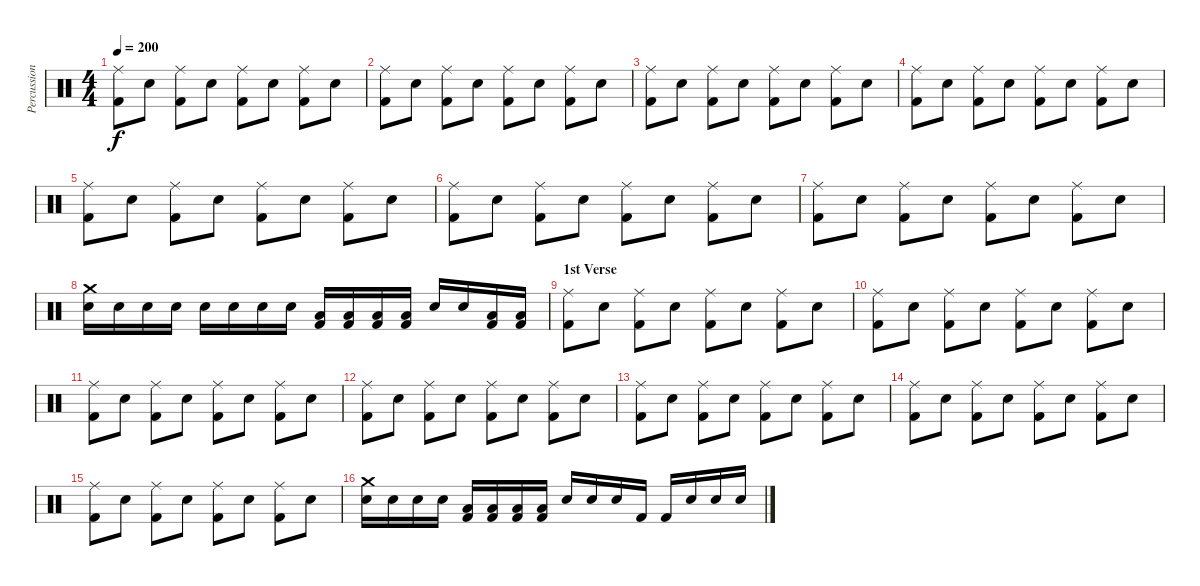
\track ("Percussion" "Percussion") {instrument percussion}
\staff {score}
\articulation defaults
\ts (4 4)
\tempo 200
\clef neutral
\ks c
("Ride (middle)" "Kick (hit) 2").8{dy f} "Electric Snare (hit)".8 ("Ride (middle)" "Kick (hit) 2").8 "Electric Snare (hit)".8 ("Ride (middle)" "Kick (hit) 2").8 "Electric Snare (hit)".8 ("Ride (middle)" "Kick (hit) 2").8 "Electric Snare (hit)".8 |
("Ride (middle)" "Kick (hit) 2").8 "Electric Snare (hit)".8 ("Ride (middle)" "Kick (hit) 2").8 "Electric Snare (hit)".8 ("Ride (middle)" "Kick (hit) 2").8 "Electric Snare (hit)".8 ("Ride (middle)" "Kick (hit) 2").8 "Electric Snare (hit)".8 |
("Ride (middle)" "Kick (hit) 2").8 "Electric Snare (hit)".8 ("Ride (middle)" "Kick (hit) 2").8 "Electric Snare (hit)".8 ("Ride (middle)" "Kick (hit) 2").8 "Electric Snare (hit)".8 ("Ride (middle)" "Kick (hit) 2").8 "Electric Snare (hit)".8 |
("Ride (middle)" "Kick (hit) 2").8 "Electric Snare (hit)".8 ("Ride (middle)" "Kick (hit) 2").8 "Electric Snare (hit)".8 ("Ride (middle)" "Kick (hit) 2").8 "Electric Snare (hit)".8 ("Ride (middle)" "Kick (hit) 2").8 "Electric Snare (hit)".8 |
("Ride (middle)" "Kick (hit) 2").8 "Electric Snare (hit)".8 ("Ride (middle)" "Kick (hit) 2").8 "Electric Snare (hit)".8 ("Ride (middle)" "Kick (hit) 2").8 "Electric Snare (hit)".8 ("Ride (middle)" "Kick (hit) 2").8 "Electric Snare (hit)".8 |
("Ride (middle)" "Kick (hit) 2").8 "Electric Snare (hit)".8 ("Ride (middle)" "Kick (hit) 2").8 "Electric Snare (hit)".8 ("Ride (middle)" "Kick (hit) 2").8 "Electric Snare (hit)".8 ("Ride (middle)" "Kick (hit) 2").8 "Electric Snare (hit)".8 |
("Ride (middle)" "Kick (hit) 2").8 "Electric Snare (hit)".8 ("Ride (middle)" "Kick (hit) 2").8 "Electric Snare (hit)".8 ("Ride (middle)" "Kick (hit) 2").8 "Electric Snare (hit)".8 ("Ride (middle)" "Kick (hit) 2").8 "Electric Snare (hit)".8 |
("Crash medium (hit)" "Electric Snare (hit)").16 "Electric Snare (hit)".16 "Electric Snare (hit)".16 "Electric Snare (hit)".16 "Electric Snare (hit)".16 "Electric Snare (hit)".16 "Electric Snare (hit)".16 "Electric Snare (hit)".16 ("Low Floor Tom (hit)" "Kick (hit) 2").16 ("Low Floor Tom (hit)" "Kick (hit) 2").16 ("Low Floor Tom (hit)" "Kick (hit) 2").16 ("Low Floor Tom (hit)" "Kick (hit) 2").16 "Electric Snare (hit)".16 "Electric Snare (hit)".16 ("Low Floor Tom (hit)" "Kick (hit) 2").16 ("Low Floor Tom (hit)" "Kick (hit) 2").16 |
\section ("" "1st Verse")
("Ride (middle)" "Kick (hit) 2").8 "Electric Snare (hit)".8 ("Ride (middle)" "Kick (hit) 2").8 "Electric Snare (hit)".8 ("Ride (middle)" "Kick (hit) 2").8 "Electric Snare (hit)".8 ("Ride (middle)" "Kick (hit) 2").8 "Electric Snare (hit)".8 |
("Ride (middle)" "Kick (hit) 2").8 "Electric Snare (hit)".8 ("Ride (middle)" "Kick (hit) 2").8 "Electric Snare (hit)".8 ("Ride (middle)" "Kick (hit) 2").8 "Electric Snare (hit)".8 ("Ride (middle)" "Kick (hit) 2").8 "Electric Snare (hit)".8 |
("Ride (middle)" "Kick (hit) 2").8 "Electric Snare (hit)".8 ("Ride (middle)" "Kick (hit) 2").8 "Electric Snare (hit)".8 ("Ride (middle)" "Kick (hit) 2").8 "Electric Snare (hit)".8 ("Ride (middle)" "Kick (hit) 2").8 "Electric Snare (hit)".8 |
("Ride (middle)" "Kick (hit) 2").8 "Electric Snare (hit)".8 ("Ride (middle)" "Kick (hit) 2").8 "Electric Snare (hit)".8 ("Ride (middle)" "Kick (hit) 2").8 "Electric Snare (hit)".8 ("Ride (middle)" "Kick (hit) 2").8 "Electric Snare (hit)".8 |
("Ride (middle)" "Kick (hit) 2").8 "Electric Snare (hit)".8 ("Ride (middle)" "Kick (hit) 2").8 "Electric Snare (hit)".8 ("Ride (middle)" "Kick (hit) 2").8 "Electric Snare (hit)".8 ("Ride (middle)" "Kick (hit) 2").8 "Electric Snare (hit)".8 |
("Ride (middle)" "Kick (hit) 2").8 "Electric Snare (hit)".8 ("Ride (middle)" "Kick (hit) 2").8 "Electric Snare (hit)".8 ("Ride (middle)" "Kick (hit) 2").8 "Electric Snare (hit)".8 ("Ride (middle)" "Kick (hit) 2").8 "Electric Snare (hit)".8 |
("Ride (middle)" "Kick (hit) 2").8 "Electric Snare (hit)".8 ("Ride (middle)" "Kick (hit) 2").8 "Electric Snare (hit)".8 ("Ride (middle)" "Kick (hit) 2").8 "Electric Snare (hit)".8 ("Ride (middle)" "Kick (hit) 2").8 "Electric Snare (hit)".8 |
("Crash medium (hit)" "Electric Snare (hit)").16 "Electric Snare (hit)".16 "Electric Snare (hit)".16 "Electric Snare (hit)".16 ("Low Floor Tom (hit)" "Kick (hit) 2").16 ("Low Floor Tom (hit)" "Kick (hit) 2").16 ("Low Floor Tom (hit)" "Kick (hit) 2").16 ("Low Floor Tom (hit)" "Kick (hit) 2").16 "Electric Snare (hit)".16 "Electric Snare (hit)".16 "Electric Snare (hit)".16 "Kick (hit) 2".16 "Kick (hit) 2".16 "Electric Snare (hit)".16 "Electric Snare (hit)".16 "Electric Snare (hit)".16
